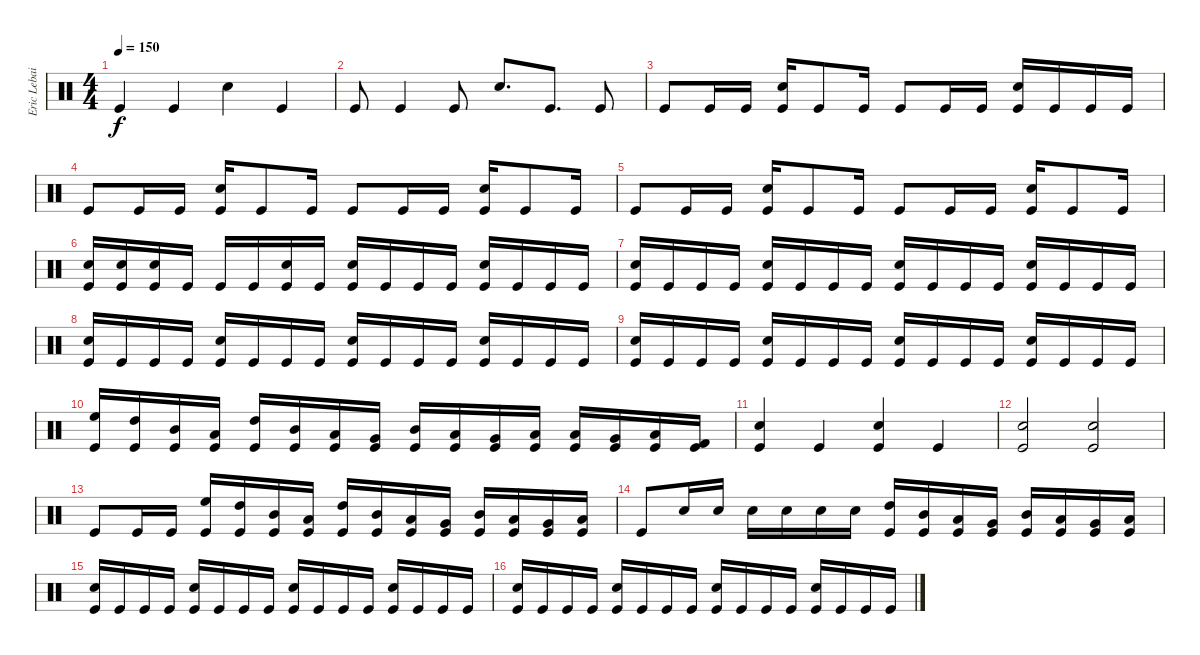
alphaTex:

\track ("Eric Lebailly - Drums" "Eric Lebai") {instrument percussion}
\staff {score}
\articulation defaults
\ts (4 4)
\tempo 150
\clef neutral
\ks c "Kick (hit)".4{dy f} "Kick (hit)".4 "Snare (hit) 2".4 "Kick (hit)".4
|
"Kick (hit)".8 "Kick (hit)".4 "Kick (hit)".8 "Snare (hit) 2".8{d} "Kick (hit)".8{d} "Kick (hit)".8 |
"Kick (hit)".8 "Kick (hit)".16 "Kick (hit)".16 ("Snare (hit) 2" "Kick (hit)").16 "Kick (hit)".8 "Kick (hit)".16 "Kick (hit)".8 "Kick (hit)".16 "Kick (hit)".16 ("Snare (hit) 2" "Kick (hit)").16 "Kick (hit)".16 "Kick (hit)".16 "Kick (hit)".16 |
"Kick (hit)".8 "Kick (hit)".16 "Kick (hit)".16 ("Snare (hit) 2" "Kick (hit)").16 "Kick (hit)".8 "Kick (hit)".16 "Kick (hit)".8 "Kick (hit)".16 "Kick (hit)".16 ("Snare (hit) 2" "Kick (hit)").16 "Kick (hit)".8 "Kick (hit)".16 |
"Kick (hit)".8 "Kick (hit)".16 "Kick (hit)".16 ("Snare (hit) 2" "Kick (hit)").16 "Kick (hit)".8 "Kick (hit)".16 "Kick (hit)".8 "Kick (hit)".16 "Kick (hit)".16 ("Snare (hit) 2" "Kick (hit)").16 "Kick (hit)".8 "Kick (hit)".16 |
("Snare (hit) 2" "Kick (hit)").16 ("Snare (hit) 2" "Kick (hit)").16 ("Snare (hit) 2" "Kick (hit)").16 "Kick (hit)".16 "Kick (hit)".16 "Kick (hit)".16 ("Snare (hit) 2" "Kick (hit)").16 "Kick (hit)".16 ("Snare (hit) 2" "Kick (hit)").16 "Kick (hit)".16 "Kick (hit)".16 "Kick (hit)".16 ("Snare (hit) 2" "Kick (hit)").16 "Kick (hit)".16 "Kick (hit)".16 "Kick (hit)".16 |
("Snare (hit) 2" "Kick (hit)").16 "Kick (hit)".16 "Kick (hit)".16 "Kick (hit)".16 ("Snare (hit) 2" "Kick (hit)").16 "Kick (hit)".16 "Kick (hit)".16 "Kick (hit)".16 ("Snare (hit) 2" "Kick (hit)").16 "Kick (hit)".16 "Kick (hit)".16 "Kick (hit)".16 ("Snare (hit) 2" "Kick (hit)").16 "Kick (hit)".16 "Kick (hit)".16 "Kick (hit)".16 |
("Snare (hit) 2" "Kick (hit)").16 "Kick (hit)".16 "Kick (hit)".16 "Kick (hit)".16 ("Snare (hit) 2" "Kick (hit)").16 "Kick (hit)".16 "Kick (hit)".16 "Kick (hit)".16 ("Snare (hit) 2" "Kick (hit)").16 "Kick (hit)".16 "Kick (hit)".16 "Kick (hit)".16 ("Snare (hit) 2" "Kick (hit)").16 "Kick (hit)".16 "Kick (hit)".16 "Kick (hit)".16 |
("Snare (hit) 2" "Kick (hit)").16 "Kick (hit)".16 "Kick (hit)".16 "Kick (hit)".16 ("Snare (hit) 2" "Kick (hit)").16 "Kick (hit)".16 "Kick (hit)".16 "Kick (hit)".16 ("Snare (hit) 2" "Kick (hit)").16 "Kick (hit)".16 "Kick (hit)".16 "Kick (hit)".16 ("Snare (hit) 2" "Kick (hit)").16 "Kick (hit)".16 "Kick (hit)".16 "Kick (hit)".16 |
("High Floor Tom (hit)" "Kick (hit)").16 ("High Tom (hit)" "Kick (hit)").16 ("Mid Tom (hit)" "Kick (hit)").16 ("Low Tom (hit)" "Kick (hit)").16 ("High Tom (hit)" "Kick (hit)").16 ("Mid Tom (hit)" "Kick (hit)").16 ("Low Tom (hit)" "Kick (hit)").16 ("Very Low Tom (hit)" "Kick (hit)").16 ("Mid Tom (hit)" "Kick (hit)").16 ("Low Tom (hit)" "Kick (hit)").16 ("Very Low Tom (hit)" "Kick (hit)").16 ("Low Floor Tom (hit)" "Kick (hit)").16 ("Low Tom (hit)" "Kick (hit)").16 ("Very Low Tom (hit)" "Kick (hit)").16 ("Low Floor Tom (hit)" "Kick (hit)").16 ("Kick (hit) 2" "Kick (hit)").16 |
("Snare (hit) 2" "Kick (hit)").4 "Kick (hit)".4 ("Snare (hit) 2" "Kick (hit)").4 "Kick (hit)".4 |
("Snare (hit) 2" "Kick (hit)").2 ("Snare (hit) 2" "Kick (hit)").2 |
"Kick (hit)".8 "Kick (hit)".16 "Kick (hit)".16 ("High Floor Tom (hit)" "Kick (hit)").16 ("High Tom (hit)" "Kick (hit)").16 ("Mid Tom (hit)" "Kick (hit)").16 ("Low Tom (hit)" "Kick (hit)").16 ("High Tom (hit)" "Kick (hit)").16 ("Mid Tom (hit)" "Kick (hit)").16 ("Low Tom (hit)" "Kick (hit)").16 ("Very Low Tom (hit)" "Kick (hit)").16 ("Mid Tom (hit)" "Kick (hit)").16 ("Low Tom (hit)" "Kick (hit)").16 ("Very Low Tom (hit)" "Kick (hit)").16 ("Low Floor Tom (hit)" "Kick (hit)").16 |
"Kick (hit)".8 "Snare (hit) 2".16 "Snare (hit) 2".16 "Snare (hit) 2".16 "Snare (hit) 2".16 "Snare (hit) 2".16 "Snare (hit) 2".16 ("High Tom (hit)" "Kick (hit)").16 ("Mid Tom (hit)" "Kick (hit)").16 ("Low Tom (hit)" "Kick (hit)").16 ("Very Low Tom (hit)" "Kick (hit)").16 ("Mid Tom (hit)" "Kick (hit)").16 ("Low Tom (hit)" "Kick (hit)").16 ("Very Low Tom (hit)" "Kick (hit)").16 ("Low Floor Tom (hit)" "Kick (hit)").16 |
("Snare (hit) 2" "Kick (hit)").16 "Kick (hit)".16 "Kick (hit)".16 "Kick (hit)".16 ("Snare (hit) 2" "Kick (hit)").16 "Kick (hit)".16 "Kick (hit)".16 "Kick (hit)".16 ("Snare (hit) 2" "Kick (hit)").16 "Kick (hit)".16 "Kick (hit)".16 "Kick (hit)".16 ("Snare (hit) 2" "Kick (hit)").16 "Kick (hit)".16 "Kick (hit)".16 "Kick (hit)".16 |
("Snare (hit) 2" "Kick (hit)").16 "Kick (hit)".16 "Kick (hit)".16 "Kick (hit)".16 ("Snare (hit) 2" "Kick (hit)").16 "Kick (hit)".16 "Kick (hit)".16 "Kick (hit)".16 ("Snare (hit) 2" "Kick (hit)").16 "Kick (hit)".16 "Kick (hit)".16 "Kick (hit)".16 ("Snare (hit) 2" "Kick (hit)").16 "Kick (hit)".16 "Kick (hit)".16 "Kick (hit)".16
